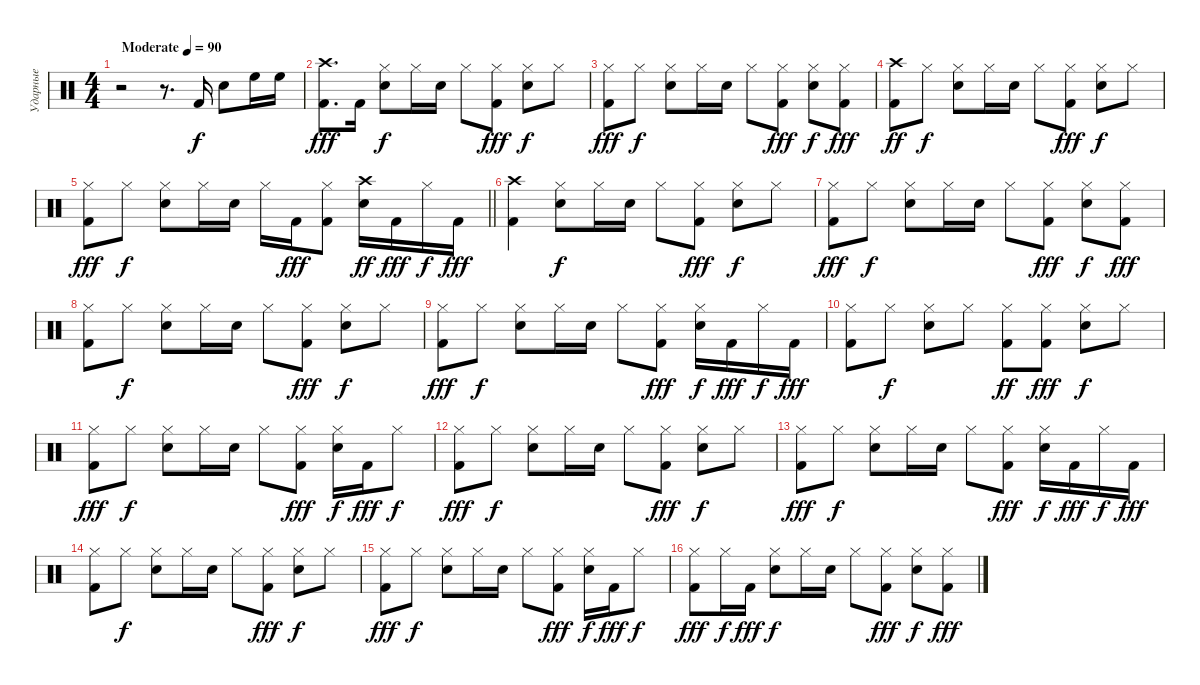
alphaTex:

\track ("Ударные" "Ударные") {instrument percussion}
\staff {score}
\articulation defaults
\ts (4 4)
\tempo (90 "Moderate")
\clef neutral
\ks c
r.2{dy f} r.8{d} "Kick (hit) 2".16 "Snare (hit) 2".8 "High Floor Tom (hit)".16 "High Floor Tom (hit)".16 |
("Kick (hit) 2" "Crash high (hit)").8{d dy fff} "Kick (hit) 2".16 ("Snare (hit) 2" "Hi-Hat (closed)").8{dy f} "Hi-Hat (closed)".16 "Snare (hit) 2".16 "Hi-Hat (closed)".8 ("Kick (hit) 2" "Hi-Hat (closed)").8{dy fff} ("Snare (hit) 2" "Hi-Hat (closed)").8{dy f} "Hi-Hat (closed)".8 |
("Kick (hit) 2" "Hi-Hat (closed)").8{dy fff} "Hi-Hat (closed)".8{dy f} ("Snare (hit) 2" "Hi-Hat (closed)").8 "Hi-Hat (closed)".16 "Snare (hit) 2".16 "Hi-Hat (closed)".8 ("Kick (hit) 2" "Hi-Hat (closed)").8{dy fff} ("Snare (hit) 2" "Hi-Hat (closed)").8{dy f} ("Kick (hit) 2" "Hi-Hat (closed)").8{dy fff} |
("Kick (hit) 2" "Crash high (hit)").8{dy ff} "Hi-Hat (closed)".8{dy f} ("Snare (hit) 2" "Hi-Hat (closed)").8 "Hi-Hat (closed)".16 "Snare (hit) 2".16 "Hi-Hat (closed)".8 ("Kick (hit) 2" "Hi-Hat (closed)").8{dy fff} ("Snare (hit) 2" "Hi-Hat (closed)").8{dy f} "Hi-Hat (closed)".8 |
\barLineRight lightlight
("Kick (hit) 2" "Hi-Hat (closed)").8{dy fff} "Hi-Hat (closed)".8{dy f} ("Snare (hit) 2" "Hi-Hat (closed)").8 "Hi-Hat (closed)".16 "Snare (hit) 2".16 "Hi-Hat (closed)".16 "Kick (hit) 2".16{dy fff} ("Kick (hit) 2" "Hi-Hat (closed)").8 ("Snare (hit) 2" "Crash high (hit)").16{dy ff} "Kick (hit) 2".16{dy fff} "Hi-Hat (closed)".16{dy f} "Kick (hit) 2".16{dy fff} |
("Kick (hit) 2" "Crash high (hit)").4 ("Snare (hit) 2" "Hi-Hat (closed)").8{dy f} "Hi-Hat (closed)".16 "Snare (hit) 2".16 "Hi-Hat (closed)".8 ("Kick (hit) 2" "Hi-Hat (closed)").8{dy fff} ("Snare (hit) 2" "Hi-Hat (closed)").8{dy f} "Hi-Hat (closed)".8 |
("Kick (hit) 2" "Hi-Hat (closed)").8{dy fff} "Hi-Hat (closed)".8{dy f} ("Snare (hit) 2" "Hi-Hat (closed)").8 "Hi-Hat (closed)".16 "Snare (hit) 2".16 "Hi-Hat (closed)".8 ("Kick (hit) 2" "Hi-Hat (closed)").8{dy fff} ("Snare (hit) 2" "Hi-Hat (closed)").8{dy f} ("Kick (hit) 2" "Hi-Hat (closed)").8{dy fff} |
("Kick (hit) 2" "Hi-Hat (closed)").8 "Hi-Hat (closed)".8{dy f} ("Snare (hit) 2" "Hi-Hat (closed)").8 "Hi-Hat (closed)".16 "Snare (hit) 2".16 "Hi-Hat (closed)".8 ("Kick (hit) 2" "Hi-Hat (closed)").8{dy fff} ("Snare (hit) 2" "Hi-Hat (closed)").8{dy f} "Hi-Hat (closed)".8 |
("Kick (hit) 2" "Hi-Hat (closed)").8{dy fff} "Hi-Hat (closed)".8{dy f} ("Snare (hit) 2" "Hi-Hat (closed)").8 "Hi-Hat (closed)".16 "Snare (hit) 2".16 "Hi-Hat (closed)".8 ("Kick (hit) 2" "Hi-Hat (closed)").8{dy fff} ("Snare (hit) 2" "Hi-Hat (closed)").16{dy f} "Kick (hit) 2".16{dy fff} "Hi-Hat (closed)".16{dy f} "Kick (hit) 2".16{dy fff} |
("Kick (hit) 2" "Hi-Hat (closed)").8 "Hi-Hat (closed)".8{dy f} ("Snare (hit) 2" "Hi-Hat (closed)").8 "Hi-Hat (closed)".8 ("Kick (hit) 2" "Hi-Hat (closed)").8{dy ff} ("Kick (hit) 2" "Hi-Hat (closed)").8{dy fff} ("Snare (hit) 2" "Hi-Hat (closed)").8{dy f} "Hi-Hat (closed)".8 |
("Kick (hit) 2" "Hi-Hat (closed)").8{dy fff} "Hi-Hat (closed)".8{dy f} ("Snare (hit) 2" "Hi-Hat (closed)").8 "Hi-Hat (closed)".16 "Snare (hit) 2".16 "Hi-Hat (closed)".8 ("Kick (hit) 2" "Hi-Hat (closed)").8{dy fff} ("Snare (hit) 2" "Hi-Hat (closed)").16{dy f} "Kick (hit) 2".16{dy fff} "Hi-Hat (closed)".8{dy f} |
("Kick (hit) 2" "Hi-Hat (closed)").8{dy fff} "Hi-Hat (closed)".8{dy f} ("Snare (hit) 2" "Hi-Hat (closed)").8 "Hi-Hat (closed)".16 "Snare (hit) 2".16 "Hi-Hat (closed)".8 ("Kick (hit) 2" "Hi-Hat (closed)").8{dy fff} ("Snare (hit) 2" "Hi-Hat (closed)").8{dy f} "Hi-Hat (closed)".8 |
("Kick (hit) 2" "Hi-Hat (closed)").8{dy fff} "Hi-Hat (closed)".8{dy f} ("Snare (hit) 2" "Hi-Hat (closed)").8 "Hi-Hat (closed)".16 "Snare (hit) 2".16 "Hi-Hat (closed)".8 ("Kick (hit) 2" "Hi-Hat (closed)").8{dy fff} ("Snare (hit) 2" "Hi-Hat (closed)").16{dy f} "Kick (hit) 2".16{dy fff} "Hi-Hat (closed)".16{dy f} "Kick (hit) 2".16{dy fff} |
("Kick (hit) 2" "Hi-Hat (closed)").8 "Hi-Hat (closed)".8{dy f} ("Snare (hit) 2" "Hi-Hat (closed)").8 "Hi-Hat (closed)".16 "Snare (hit) 2".16 "Hi-Hat (closed)".8 ("Kick (hit) 2" "Hi-Hat (closed)").8{dy fff} ("Snare (hit) 2" "Hi-Hat (closed)").8{dy f} "Hi-Hat (closed)".8 |
("Kick (hit) 2" "Hi-Hat (closed)").8{dy fff} "Hi-Hat (closed)".8{dy f} ("Snare (hit) 2" "Hi-Hat (closed)").8 "Hi-Hat (closed)".16 "Snare (hit) 2".16 "Hi-Hat (closed)".8 ("Kick (hit) 2" "Hi-Hat (closed)").8{dy fff} ("Snare (hit) 2" "Hi-Hat (closed)").16{dy f} "Kick (hit) 2".16{dy fff} "Hi-Hat (closed)".8{dy f} |
("Kick (hit) 2" "Hi-Hat (closed)").8{dy fff} "Hi-Hat (closed)".16{dy f} "Kick (hit) 2".16{dy fff} ("Snare (hit) 2" "Hi-Hat (closed)").8{dy f} "Hi-Hat (closed)".16 "Snare (hit) 2".16 "Hi-Hat (closed)".8 ("Kick (hit) 2" "Hi-Hat (closed)").8{dy fff} ("Snare (hit) 2" "Hi-Hat (closed)").8{dy f} ("Kick (hit) 2" "Hi-Hat (closed)").8{dy fff}
